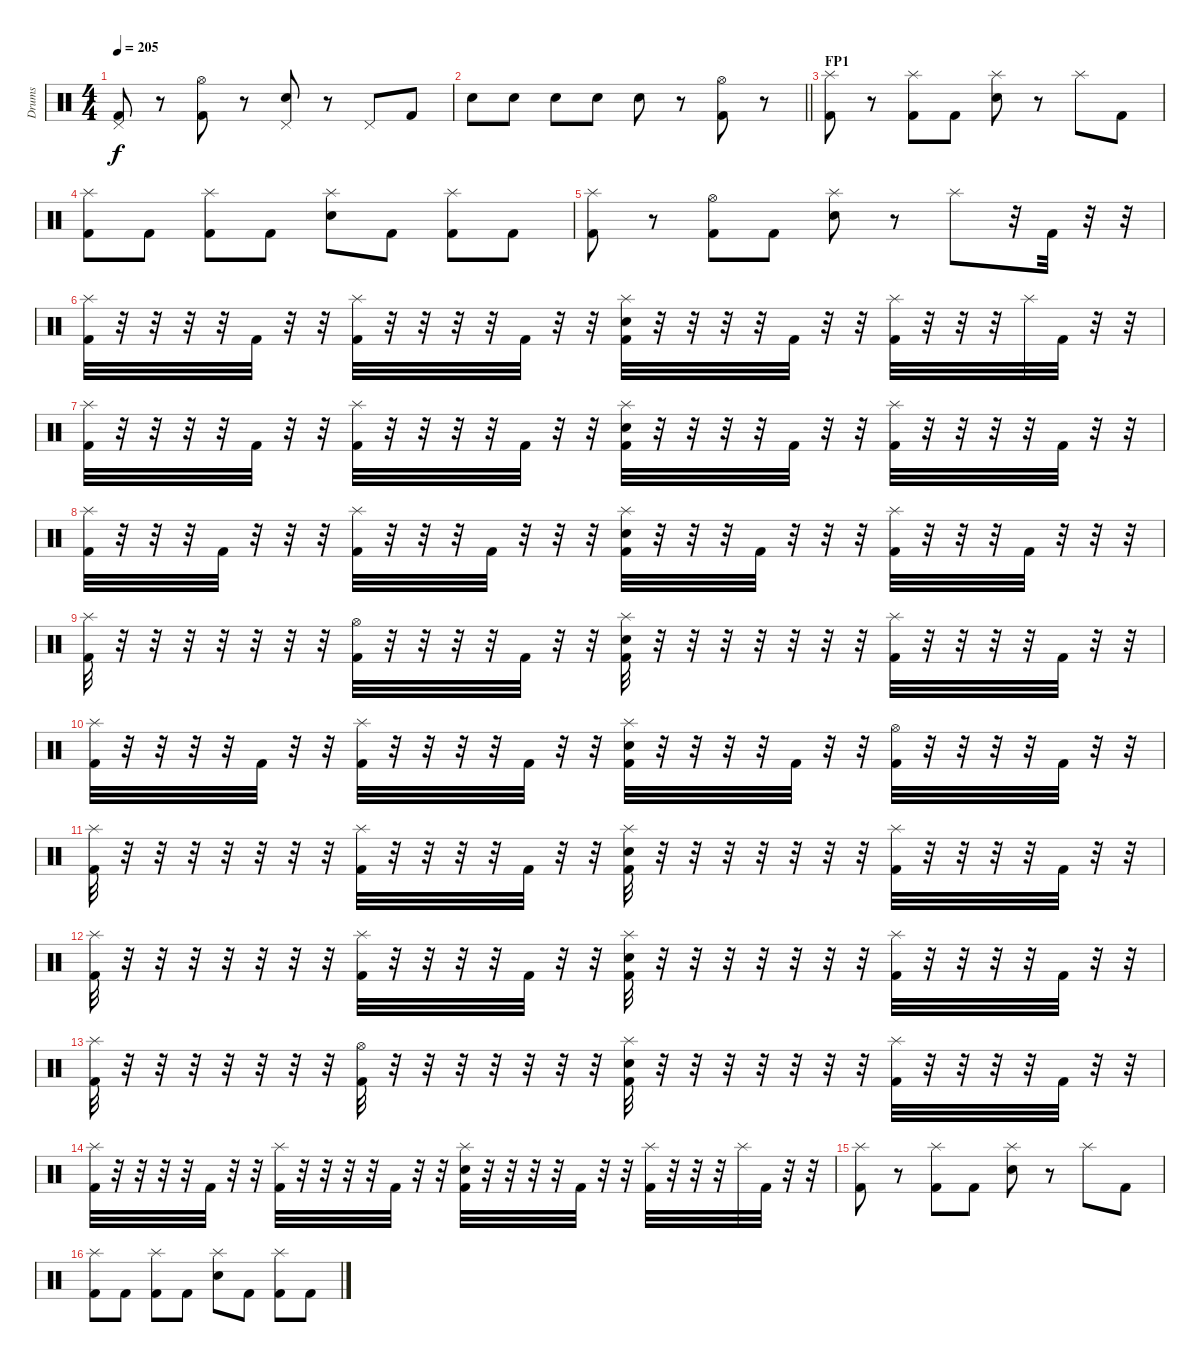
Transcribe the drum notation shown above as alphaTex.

\track ("Drums" "Drums") {instrument percussion}
\staff {score}
\articulation defaults
\ts (4 4)
\tempo 205
\clef neutral
\ks c
("Kick (hit) 2" "Pedal Hi-Hat (hit)").8{dy f} r.8 ("Kick (hit) 2" "Hi-Hat (open)").8 r.8 ("Pedal Hi-Hat (hit)" "Snare (hit) 2").8 r.8 "Pedal Hi-Hat (hit)".8 "Kick (hit) 2".8 |
\barLineRight lightlight "Snare (hit) 2".8 "Snare (hit) 2".8 "Snare (hit) 2".8 "Snare (hit) 2".8 "Snare (hit) 2".8
r.8 ("Kick (hit) 2" "Hi-Hat (open)").8 r.8 |
\section ("" "FP1")
("Kick (hit) 2" "Splash (hit)").8 r.8 ("Kick (hit) 2" "Splash (hit)").8 "Kick (hit) 2".8 ("Splash (hit)" "Snare (hit) 2").8 r.8 "Splash (hit)".8 "Kick (hit) 2".8 |
("Kick (hit) 2" "Splash (hit)").8 "Kick (hit) 2".8 ("Kick (hit) 2" "Splash (hit)").8 "Kick (hit) 2".8 ("Splash (hit)" "Snare (hit) 2").8 "Kick (hit) 2".8 ("Kick (hit) 2" "Splash (hit)").8 "Kick (hit) 2".8 |
("Kick (hit) 2" "Splash (hit)").8 r.8 ("Kick (hit) 2" "Hi-Hat (open)").8 "Kick (hit) 2".8 ("Splash (hit)" "Snare (hit) 2").8 r.8 "Splash (hit)".8 r.32 "Kick (hit) 2".32 r.32 r.32 |
("Kick (hit) 2" "Splash (hit)").32 r.32 r.32 r.32 r.32 "Kick (hit) 2".32 r.32 r.32 ("Kick (hit) 2" "Splash (hit)").32 r.32 r.32 r.32 r.32 "Kick (hit) 2".32 r.32 r.32 ("Kick (hit) 2" "Splash (hit)" "Snare (hit) 2").32 r.32 r.32 r.32 r.32 "Kick (hit) 2".32 r.32 r.32 ("Kick (hit) 2" "Splash (hit)").32 r.32 r.32 r.32 "Splash (hit)".32 "Kick (hit) 2".32 r.32 r.32 |
("Kick (hit) 2" "Splash (hit)").32 r.32 r.32 r.32 r.32 "Kick (hit) 2".32 r.32 r.32 ("Kick (hit) 2" "Splash (hit)").32 r.32 r.32 r.32 r.32 "Kick (hit) 2".32 r.32 r.32 ("Kick (hit) 2" "Splash (hit)" "Snare (hit) 2").32 r.32 r.32 r.32 r.32 "Kick (hit) 2".32 r.32 r.32 ("Kick (hit) 2" "Splash (hit)").32 r.32 r.32 r.32 r.32 "Kick (hit) 2".32 r.32 r.32 |
("Kick (hit) 2" "Splash (hit)").32 r.32 r.32 r.32 "Kick (hit) 2".32 r.32 r.32 r.32 ("Kick (hit) 2" "Splash (hit)").32 r.32 r.32 r.32 "Kick (hit) 2".32 r.32 r.32 r.32 ("Kick (hit) 2" "Splash (hit)" "Snare (hit) 2").32 r.32 r.32 r.32 "Kick (hit) 2".32 r.32 r.32 r.32 ("Kick (hit) 2" "Splash (hit)").32 r.32 r.32 r.32 "Kick (hit) 2".32 r.32 r.32 r.32 |
("Kick (hit) 2" "Splash (hit)").32 r.32 r.32 r.32 r.32 r.32 r.32 r.32 ("Kick (hit) 2" "Hi-Hat (open)").32 r.32 r.32 r.32 r.32 "Kick (hit) 2".32 r.32 r.32 ("Kick (hit) 2" "Splash (hit)" "Snare (hit) 2").32 r.32 r.32 r.32 r.32 r.32 r.32 r.32 ("Kick (hit) 2" "Splash (hit)").32 r.32 r.32 r.32 r.32 "Kick (hit) 2".32 r.32 r.32 |
("Kick (hit) 2" "Splash (hit)").32 r.32 r.32 r.32 r.32 "Kick (hit) 2".32 r.32 r.32 ("Kick (hit) 2" "Splash (hit)").32 r.32 r.32 r.32 r.32 "Kick (hit) 2".32 r.32 r.32 ("Kick (hit) 2" "Splash (hit)" "Snare (hit) 2").32 r.32 r.32 r.32 r.32 "Kick (hit) 2".32 r.32 r.32 ("Kick (hit) 2" "Hi-Hat (open)").32 r.32 r.32 r.32 r.32 "Kick (hit) 2".32 r.32 r.32 |
("Kick (hit) 2" "Splash (hit)").32 r.32 r.32 r.32 r.32 r.32 r.32 r.32 ("Kick (hit) 2" "Splash (hit)").32 r.32 r.32 r.32 r.32 "Kick (hit) 2".32 r.32 r.32 ("Kick (hit) 2" "Splash (hit)" "Snare (hit) 2").32 r.32 r.32 r.32 r.32 r.32 r.32 r.32 ("Kick (hit) 2" "Splash (hit)").32 r.32 r.32 r.32 r.32 "Kick (hit) 2".32 r.32 r.32 |
("Kick (hit) 2" "Splash (hit)").32 r.32 r.32 r.32 r.32 r.32 r.32 r.32 ("Kick (hit) 2" "Splash (hit)").32 r.32 r.32 r.32 r.32 "Kick (hit) 2".32 r.32 r.32 ("Kick (hit) 2" "Splash (hit)" "Snare (hit) 2").32 r.32 r.32 r.32 r.32 r.32 r.32 r.32 ("Kick (hit) 2" "Splash (hit)").32 r.32 r.32 r.32 r.32 "Kick (hit) 2".32 r.32 r.32 |
("Kick (hit) 2" "Splash (hit)").32 r.32 r.32 r.32 r.32 r.32 r.32 r.32 ("Kick (hit) 2" "Hi-Hat (open)").32 r.32 r.32 r.32 r.32 r.32 r.32 r.32 ("Kick (hit) 2" "Splash (hit)" "Snare (hit) 2").32 r.32 r.32 r.32 r.32 r.32 r.32 r.32 ("Kick (hit) 2" "Splash (hit)").32 r.32 r.32 r.32 r.32 "Kick (hit) 2".32 r.32 r.32 |
("Kick (hit) 2" "Splash (hit)").32 r.32 r.32 r.32 r.32 "Kick (hit) 2".32 r.32 r.32 ("Kick (hit) 2" "Splash (hit)").32 r.32 r.32 r.32 r.32 "Kick (hit) 2".32 r.32 r.32 ("Kick (hit) 2" "Splash (hit)" "Snare (hit) 2").32 r.32 r.32 r.32 r.32 "Kick (hit) 2".32 r.32 r.32 ("Kick (hit) 2" "Splash (hit)").32 r.32 r.32 r.32 "Splash (hit)".32 "Kick (hit) 2".32 r.32 r.32 |
("Kick (hit) 2" "Splash (hit)").8 r.8 ("Kick (hit) 2" "Splash (hit)").8 "Kick (hit) 2".8 ("Splash (hit)" "Snare (hit) 2").8 r.8 "Splash (hit)".8 "Kick (hit) 2".8 |
("Kick (hit) 2" "Splash (hit)").8 "Kick (hit) 2".8 ("Kick (hit) 2" "Splash (hit)").8 "Kick (hit) 2".8 ("Splash (hit)" "Snare (hit) 2").8 "Kick (hit) 2".8 ("Kick (hit) 2" "Splash (hit)").8 "Kick (hit) 2".8
